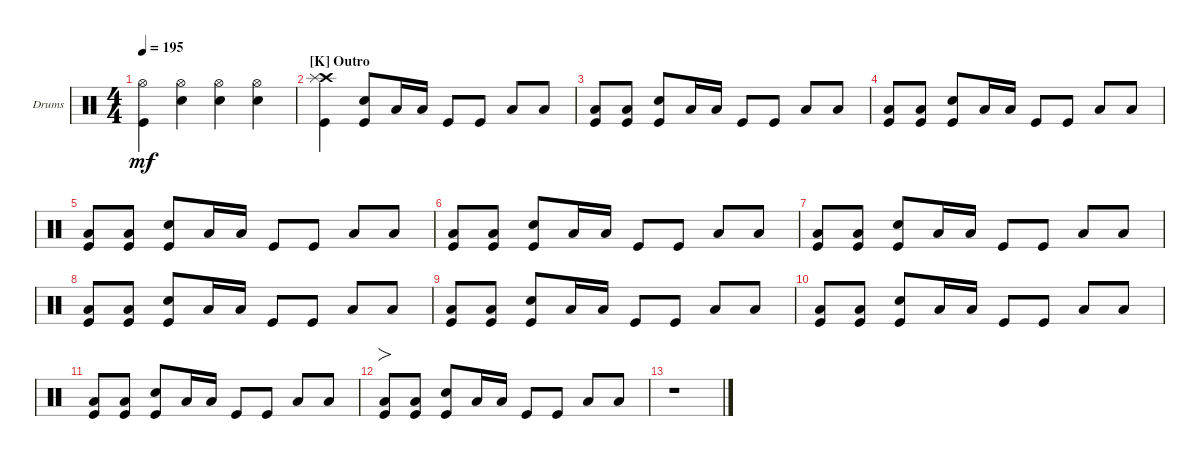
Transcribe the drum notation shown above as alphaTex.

\defaultSystemsLayout 4
\bracketExtendMode groupsimilarinstruments
\firstSystemTrackNameOrientation horizontal
\otherSystemsTrackNameOrientation horizontal
\track ("Drumkit" "Drums") {instrument percussion}
\staff {score}
\articulation defaults
\ts (4 4)
\tempo 195
\clef neutral
\ks c
("Hi-Hat (open)" "Kick (hit)").4{dy mf} ("Snare (hit) 2" "Hi-Hat (open)").4 ("Snare (hit) 2" "Hi-Hat (open)").4 ("Snare (hit) 2" "Hi-Hat (open)").4 |
\section ("K" "Outro")
("Kick (hit)" "Crash high (hit)" "Splash (hit)").4 ("Snare (hit) 2" "Kick (hit)").8 "Low Tom (hit)".16 "Low Tom (hit)".16 "Kick (hit)".8 "Kick (hit)".8 "Low Tom (hit)".8 "Low Tom (hit)".8 |
("Kick (hit)" "Low Tom (hit)").8 ("Kick (hit)" "Low Tom (hit)").8 ("Snare (hit) 2" "Kick (hit)").8 "Low Tom (hit)".16 "Low Tom (hit)".16 "Kick (hit)".8 "Kick (hit)".8 "Low Tom (hit)".8 "Low Tom (hit)".8 |
("Kick (hit)" "Low Tom (hit)").8 ("Kick (hit)" "Low Tom (hit)").8 ("Snare (hit) 2" "Kick (hit)").8 "Low Tom (hit)".16 "Low Tom (hit)".16 "Kick (hit)".8 "Kick (hit)".8 "Low Tom (hit)".8 "Low Tom (hit)".8 |
("Kick (hit)" "Low Tom (hit)").8 ("Kick (hit)" "Low Tom (hit)").8 ("Snare (hit) 2" "Kick (hit)").8 "Low Tom (hit)".16 "Low Tom (hit)".16 "Kick (hit)".8 "Kick (hit)".8 "Low Tom (hit)".8 "Low Tom (hit)".8 |
("Kick (hit)" "Low Tom (hit)").8 ("Kick (hit)" "Low Tom (hit)").8 ("Snare (hit) 2" "Kick (hit)").8 "Low Tom (hit)".16 "Low Tom (hit)".16 "Kick (hit)".8 "Kick (hit)".8 "Low Tom (hit)".8 "Low Tom (hit)".8 |
("Kick (hit)" "Low Tom (hit)").8 ("Kick (hit)" "Low Tom (hit)").8 ("Snare (hit) 2" "Kick (hit)").8 "Low Tom (hit)".16 "Low Tom (hit)".16 "Kick (hit)".8 "Kick (hit)".8 "Low Tom (hit)".8 "Low Tom (hit)".8 |
("Kick (hit)" "Low Tom (hit)").8 ("Kick (hit)" "Low Tom (hit)").8 ("Snare (hit) 2" "Kick (hit)").8 "Low Tom (hit)".16 "Low Tom (hit)".16 "Kick (hit)".8 "Kick (hit)".8 "Low Tom (hit)".8 "Low Tom (hit)".8 |
("Kick (hit)" "Low Tom (hit)").8 ("Kick (hit)" "Low Tom (hit)").8 ("Snare (hit) 2" "Kick (hit)").8 "Low Tom (hit)".16 "Low Tom (hit)".16 "Kick (hit)".8 "Kick (hit)".8 "Low Tom (hit)".8 "Low Tom (hit)".8 |
("Kick (hit)" "Low Tom (hit)").8 ("Kick (hit)" "Low Tom (hit)").8 ("Snare (hit) 2" "Kick (hit)").8 "Low Tom (hit)".16 "Low Tom (hit)".16 "Kick (hit)".8 "Kick (hit)".8 "Low Tom (hit)".8 "Low Tom (hit)".8 |
("Kick (hit)" "Low Tom (hit)").8 ("Kick (hit)" "Low Tom (hit)").8 ("Snare (hit) 2" "Kick (hit)").8 "Low Tom (hit)".16 "Low Tom (hit)".16 "Kick (hit)".8 "Kick (hit)".8 "Low Tom (hit)".8 "Low Tom (hit)".8 |
("Kick (hit)" "Low Tom (hit)").8{fo} ("Kick (hit)" "Low Tom (hit)").8 ("Snare (hit) 2" "Kick (hit)").8 "Low Tom (hit)".16 "Low Tom (hit)".16 "Kick (hit)".8 "Kick (hit)".8 "Low Tom (hit)".8 "Low Tom (hit)".8 |
r.1
